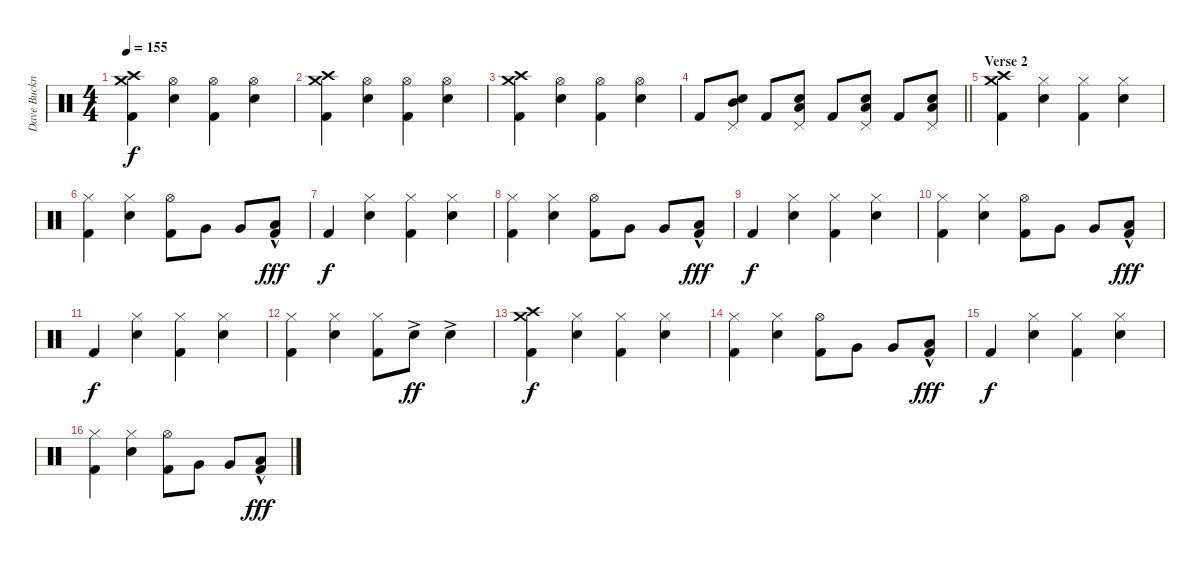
\track ("Dave Buckner (Drums)" "Dave Buckn") {instrument percussion}
\staff {score}
\articulation defaults
\ts (4 4)
\tempo 155
\clef neutral
\ks c
("Crash medium (hit)" "Crash high (hit)" "Kick (hit) 2").4{dy f} ("Hi-Hat (open)" "Electric Snare (hit)").4 ("Hi-Hat (open)" "Kick (hit) 2").4 ("Hi-Hat (open)" "Electric Snare (hit)").4 |
("Crash medium (hit)" "Crash high (hit)" "Kick (hit) 2").4 ("Hi-Hat (open)" "Electric Snare (hit)").4 ("Hi-Hat (open)" "Kick (hit) 2").4 ("Hi-Hat (open)" "Electric Snare (hit)").4 |
("Crash medium (hit)" "Crash high (hit)" "Kick (hit) 2").4 ("Hi-Hat (open)" "Electric Snare (hit)").4 ("Hi-Hat (open)" "Kick (hit) 2").4 ("Hi-Hat (open)" "Electric Snare (hit)").4 |
\barLineRight lightlight "Kick (hit) 2".8
("Pedal Hi-Hat (hit)" "Electric Snare (hit)" "Mid Tom (hit)").8 "Kick (hit) 2".8 ("Pedal Hi-Hat (hit)" "Electric Snare (hit)" "Low Tom (hit)").8 "Kick (hit) 2".8 ("Pedal Hi-Hat (hit)" "Electric Snare (hit)" "Low Floor Tom (hit)").8 "Kick (hit) 2".8 ("Pedal Hi-Hat (hit)" "Electric Snare (hit)" "Low Floor Tom (hit)").8 |
\section ("" "Verse 2")
("Crash medium (hit)" "Crash high (hit)" "Kick (hit) 2").4 ("Hi-Hat (closed)" "Electric Snare (hit)").4 ("Hi-Hat (closed)" "Kick (hit) 2").4 ("Hi-Hat (closed)" "Electric Snare (hit)").4 |
("Hi-Hat (closed)" "Kick (hit) 2").4 ("Hi-Hat (closed)" "Electric Snare (hit)").4 ("Hi-Hat (open)" "Kick (hit) 2").8 "Very Low Tom (hit)".8 "Very Low Tom (hit)".8 ("Low Floor Tom (hit)"{hac} "Kick (hit) 2").8{dy fff} |
"Kick (hit) 2".4{dy f} ("Hi-Hat (closed)" "Electric Snare (hit)").4 ("Hi-Hat (closed)" "Kick (hit) 2").4 ("Hi-Hat (closed)" "Electric Snare (hit)").4 |
("Hi-Hat (closed)" "Kick (hit) 2").4 ("Hi-Hat (closed)" "Electric Snare (hit)").4 ("Hi-Hat (open)" "Kick (hit) 2").8 "Very Low Tom (hit)".8 "Very Low Tom (hit)".8 ("Low Floor Tom (hit)"{hac} "Kick (hit) 2").8{dy fff} |
"Kick (hit) 2".4{dy f} ("Hi-Hat (closed)" "Electric Snare (hit)").4 ("Hi-Hat (closed)" "Kick (hit) 2").4 ("Hi-Hat (closed)" "Electric Snare (hit)").4 |
("Hi-Hat (closed)" "Kick (hit) 2").4 ("Hi-Hat (closed)" "Electric Snare (hit)").4 ("Hi-Hat (open)" "Kick (hit) 2").8 "Very Low Tom (hit)".8 "Very Low Tom (hit)".8 ("Low Floor Tom (hit)"{hac} "Kick (hit) 2").8{dy fff} |
"Kick (hit) 2".4{dy f} ("Hi-Hat (closed)" "Electric Snare (hit)").4 ("Hi-Hat (closed)" "Kick (hit) 2").4 ("Hi-Hat (closed)" "Electric Snare (hit)").4 |
("Hi-Hat (closed)" "Kick (hit) 2").4 ("Hi-Hat (closed)" "Electric Snare (hit)").4 ("Hi-Hat (closed)" "Kick (hit) 2").8 "Electric Snare (hit)"{ac}.8{dy ff} "Electric Snare (hit)"{ac}.4 |
("Crash medium (hit)" "Crash high (hit)" "Kick (hit) 2").4{dy f} ("Hi-Hat (closed)" "Electric Snare (hit)").4 ("Hi-Hat (closed)" "Kick (hit) 2").4 ("Hi-Hat (closed)" "Electric Snare (hit)").4 |
("Hi-Hat (closed)" "Kick (hit) 2").4 ("Hi-Hat (closed)" "Electric Snare (hit)").4 ("Hi-Hat (open)" "Kick (hit) 2").8 "Very Low Tom (hit)".8 "Very Low Tom (hit)".8 ("Low Floor Tom (hit)"{hac} "Kick (hit) 2").8{dy fff} |
"Kick (hit) 2".4{dy f} ("Hi-Hat (closed)" "Electric Snare (hit)").4 ("Hi-Hat (closed)" "Kick (hit) 2").4 ("Hi-Hat (closed)" "Electric Snare (hit)").4 |
("Hi-Hat (closed)" "Kick (hit) 2").4 ("Hi-Hat (closed)" "Electric Snare (hit)").4 ("Hi-Hat (open)" "Kick (hit) 2").8 "Very Low Tom (hit)".8 "Very Low Tom (hit)".8 ("Low Floor Tom (hit)"{hac} "Kick (hit) 2").8{dy fff}
